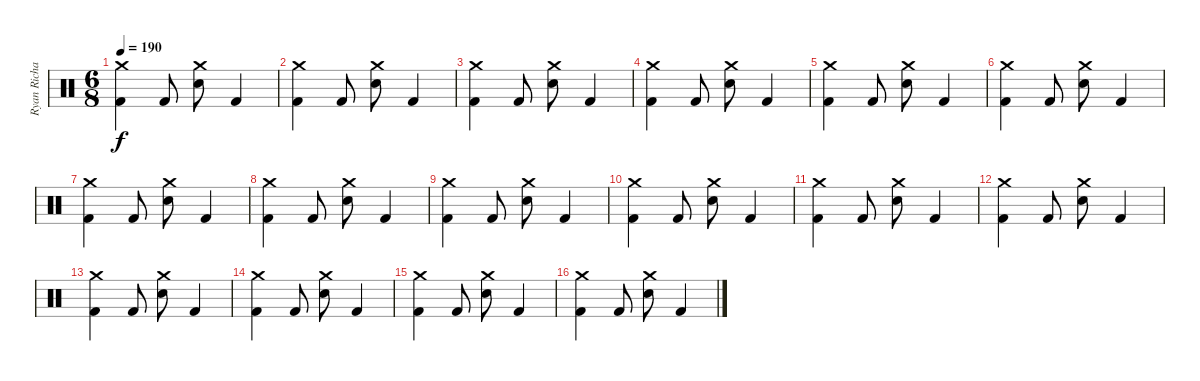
\track ("Ryan Richards" "Ryan Richa") {instrument percussion bank 127}
\staff {score}
\articulation defaults
\ts (6 8)
\tempo 190
\clef neutral
\ks c
("Crash medium (hit)" "Kick (hit) 2").4{dy f} "Kick (hit) 2".8 ("Crash medium (hit)" "Snare (hit) 2").8 "Kick (hit) 2".4 |
("Crash medium (hit)" "Kick (hit) 2").4 "Kick (hit) 2".8 ("Crash medium (hit)" "Snare (hit) 2").8 "Kick (hit) 2".4 |
("Crash medium (hit)" "Kick (hit) 2").4 "Kick (hit) 2".8 ("Crash medium (hit)" "Snare (hit) 2").8 "Kick (hit) 2".4 |
("Crash medium (hit)" "Kick (hit) 2").4 "Kick (hit) 2".8 ("Crash medium (hit)" "Snare (hit) 2").8 "Kick (hit) 2".4 |
("Crash medium (hit)" "Kick (hit) 2").4 "Kick (hit) 2".8 ("Crash medium (hit)" "Snare (hit) 2").8 "Kick (hit) 2".4 |
("Crash medium (hit)" "Kick (hit) 2").4 "Kick (hit) 2".8 ("Crash medium (hit)" "Snare (hit) 2").8 "Kick (hit) 2".4 |
("Crash medium (hit)" "Kick (hit) 2").4 "Kick (hit) 2".8 ("Crash medium (hit)" "Snare (hit) 2").8 "Kick (hit) 2".4 |
("Crash medium (hit)" "Kick (hit) 2").4 "Kick (hit) 2".8 ("Crash medium (hit)" "Snare (hit) 2").8 "Kick (hit) 2".4 |
("Crash medium (hit)" "Kick (hit) 2").4 "Kick (hit) 2".8 ("Crash medium (hit)" "Snare (hit) 2").8 "Kick (hit) 2".4 |
("Crash medium (hit)" "Kick (hit) 2").4 "Kick (hit) 2".8 ("Crash medium (hit)" "Snare (hit) 2").8 "Kick (hit) 2".4 |
("Crash medium (hit)" "Kick (hit) 2").4 "Kick (hit) 2".8 ("Crash medium (hit)" "Snare (hit) 2").8 "Kick (hit) 2".4 |
("Crash medium (hit)" "Kick (hit) 2").4 "Kick (hit) 2".8 ("Crash medium (hit)" "Snare (hit) 2").8 "Kick (hit) 2".4 |
("Crash medium (hit)" "Kick (hit) 2").4 "Kick (hit) 2".8 ("Crash medium (hit)" "Snare (hit) 2").8 "Kick (hit) 2".4 |
("Crash medium (hit)" "Kick (hit) 2").4 "Kick (hit) 2".8 ("Crash medium (hit)" "Snare (hit) 2").8 "Kick (hit) 2".4 |
("Crash medium (hit)" "Kick (hit) 2").4 "Kick (hit) 2".8 ("Crash medium (hit)" "Snare (hit) 2").8 "Kick (hit) 2".4 |
("Crash medium (hit)" "Kick (hit) 2").4 "Kick (hit) 2".8 ("Crash medium (hit)" "Snare (hit) 2").8 "Kick (hit) 2".4
